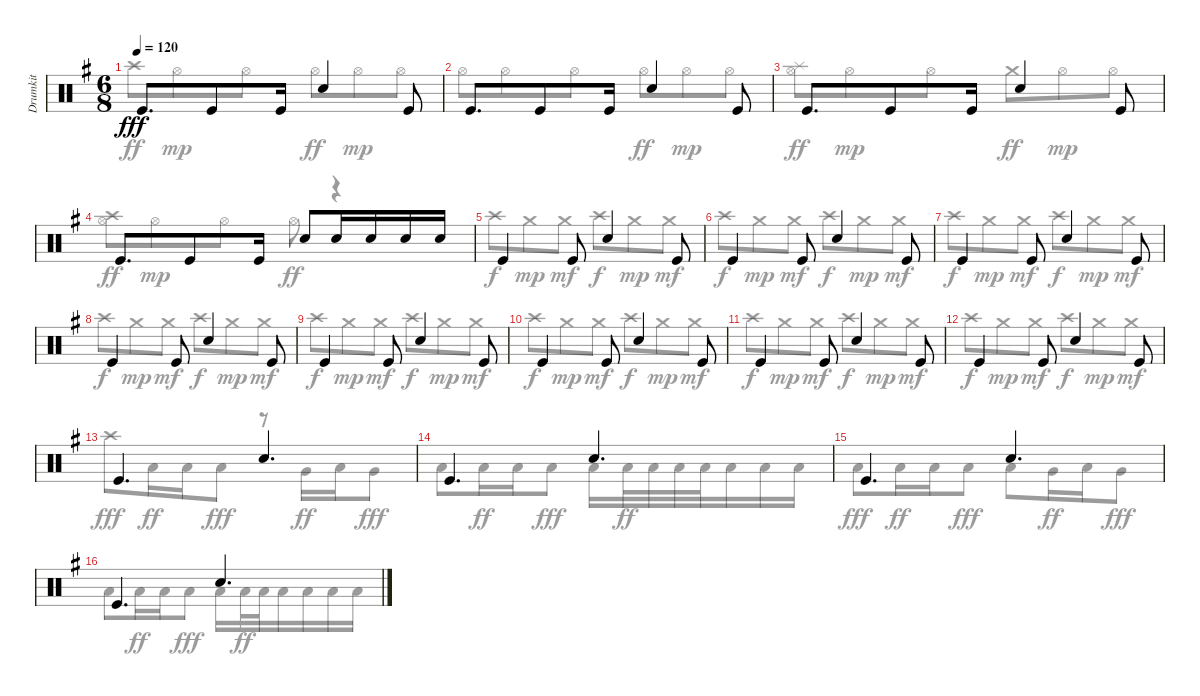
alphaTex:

\track ("Drumkit" "Drumkit") {instrument percussion}
\staff {score}
\articulation defaults
\voice
\ts (6 8)
\tempo 120
\clef neutral
\ks eminor "Kick (hit)".8{d dy fff} "Kick (hit)".8 "Kick (hit)".16 "Snare (hit) 2".4 "Kick (hit)".8
|
"Kick (hit)".8{d} "Kick (hit)".8 "Kick (hit)".16 "Snare (hit) 2".4 "Kick (hit)".8 |
"Kick (hit)".8{d} "Kick (hit)".8 "Kick (hit)".16 "Snare (hit) 2".4 "Kick (hit)".8 |
"Kick (hit)".8{d} "Kick (hit)".8 "Kick (hit)".16 "Snare (hit) 2".8 "Snare (hit) 2".16 "Snare (hit) 2".16 "Snare (hit) 2".16 "Snare (hit) 2".16 |
"Kick (hit)".4 "Kick (hit)".8 "Snare (hit) 2".4 "Kick (hit)".8 |
"Kick (hit)".4 "Kick (hit)".8 "Snare (hit) 2".4 "Kick (hit)".8 |
"Kick (hit)".4 "Kick (hit)".8 "Snare (hit) 2".4 "Kick (hit)".8 |
"Kick (hit)".4 "Kick (hit)".8 "Snare (hit) 2".4 "Kick (hit)".8 |
"Kick (hit)".4 "Kick (hit)".8 "Snare (hit) 2".4 "Kick (hit)".8 |
"Kick (hit)".4 "Kick (hit)".8 "Snare (hit) 2".4 "Kick (hit)".8 |
"Kick (hit)".4 "Kick (hit)".8 "Snare (hit) 2".4 "Kick (hit)".8 |
"Kick (hit)".4 "Kick (hit)".8 "Snare (hit) 2".4 "Kick (hit)".8 |
"Kick (hit)".4{d} "Snare (hit) 2".4{d} |
"Kick (hit)".4{d} "Snare (hit) 2".4{d} |
"Kick (hit)".4{d} "Snare (hit) 2".4{d} |
"Kick (hit)".4{d} "Snare (hit) 2".4{d}
\voice
\clef neutral
\ottava regular
\simile none
\ks eminor "Crash high (hit)".8{dy ff} "Hi-Hat (open)".8{dy mp} "Hi-Hat (open)".8 "Hi-Hat (open)".8{dy ff} "Hi-Hat (open)".8{dy mp} "Hi-Hat (open)".8
|
"Hi-Hat (open)".8 "Hi-Hat (open)".8 "Hi-Hat (open)".8 "Hi-Hat (open)".8{dy ff} "Hi-Hat (open)".8{dy mp} "Hi-Hat (open)".8 |
("Splash (hit)" "Hi-Hat (open)").8{dy ff} "Hi-Hat (open)".8{dy mp} "Hi-Hat (open)".8 "Crash medium (hit)".8{dy ff} "Hi-Hat (open)".8{dy mp} "Hi-Hat (open)".8 |
("Crash high (hit)" "Hi-Hat (open)").8{dy ff} "Hi-Hat (open)".8{dy mp} "Hi-Hat (open)".8 "Hi-Hat (open)".8{dy ff} r.4 |
"Crash high (hit)".8{dy f} "Crash medium (hit)".8{dy mp} "Crash medium (hit)".8{dy mf} "Crash high (hit)".8{dy f} "Crash medium (hit)".8{dy mp} "Crash medium (hit)".8{dy mf} |
"Crash high (hit)".8{dy f} "Crash medium (hit)".8{dy mp} "Crash medium (hit)".8{dy mf} "Crash high (hit)".8{dy f} "Crash medium (hit)".8{dy mp} "Crash medium (hit)".8{dy mf} |
"Crash high (hit)".8{dy f} "Crash medium (hit)".8{dy mp} "Crash medium (hit)".8{dy mf} "Crash high (hit)".8{dy f} "Crash medium (hit)".8{dy mp} "Crash medium (hit)".8{dy mf} |
"Crash high (hit)".8{dy f} "Crash medium (hit)".8{dy mp} "Crash medium (hit)".8{dy mf} "Crash high (hit)".8{dy f} "Crash medium (hit)".8{dy mp} "Crash medium (hit)".8{dy mf} |
"Crash high (hit)".8{dy f} "Crash medium (hit)".8{dy mp} "Crash medium (hit)".8{dy mf} "Crash high (hit)".8{dy f} "Crash medium (hit)".8{dy mp} "Crash medium (hit)".8{dy mf} |
"Crash high (hit)".8{dy f} "Crash medium (hit)".8{dy mp} "Crash medium (hit)".8{dy mf} "Crash high (hit)".8{dy f} "Crash medium (hit)".8{dy mp} "Crash medium (hit)".8{dy mf} |
"Crash high (hit)".8{dy f} "Crash medium (hit)".8{dy mp} "Crash medium (hit)".8{dy mf} "Crash high (hit)".8{dy f} "Crash medium (hit)".8{dy mp} "Crash medium (hit)".8{dy mf} |
"Crash high (hit)".8{dy f} "Crash medium (hit)".8{dy mp} "Crash medium (hit)".8{dy mf} "Crash high (hit)".8{dy f} "Crash medium (hit)".8{dy mp} "Crash medium (hit)".8{dy mf} |
"Crash high (hit)".8{dy fff} "Low Floor Tom (hit)".16{dy ff} "Low Floor Tom (hit)".16 "Low Floor Tom (hit)".8{dy fff} r.8 "Very Low Tom (hit)".16{dy ff} "Low Tom (hit)".16 "Very Low Tom (hit)".8{dy fff} |
"Low Floor Tom (hit)".8 "Low Floor Tom (hit)".16{dy ff} "Low Floor Tom (hit)".16 "Low Floor Tom (hit)".8{dy fff} "Low Floor Tom (hit)".16 "Low Floor Tom (hit)".32{dy ff} "Low Floor Tom (hit)".32 "Low Floor Tom (hit)".32 "Low Floor Tom (hit)".32 "Low Floor Tom (hit)".16 "Low Floor Tom (hit)".16 "Low Floor Tom (hit)".16 |
"Low Floor Tom (hit)".8{dy fff} "Low Floor Tom (hit)".16{dy ff} "Low Floor Tom (hit)".16 "Low Floor Tom (hit)".8{dy fff} "Low Floor Tom (hit)".8 "Very Low Tom (hit)".16{dy ff} "Low Tom (hit)".16 "Very Low Tom (hit)".8{dy fff} |
"Low Floor Tom (hit)".8 "Low Floor Tom (hit)".16{dy ff} "Low Floor Tom (hit)".16 "Low Floor Tom (hit)".8{dy fff} "Low Floor Tom (hit)".16 "Low Floor Tom (hit)".32{dy ff} "Low Floor Tom (hit)".32 "Low Floor Tom (hit)".16 "Low Floor Tom (hit)".16 "Low Floor Tom (hit)".16 "Low Floor Tom (hit)".16
